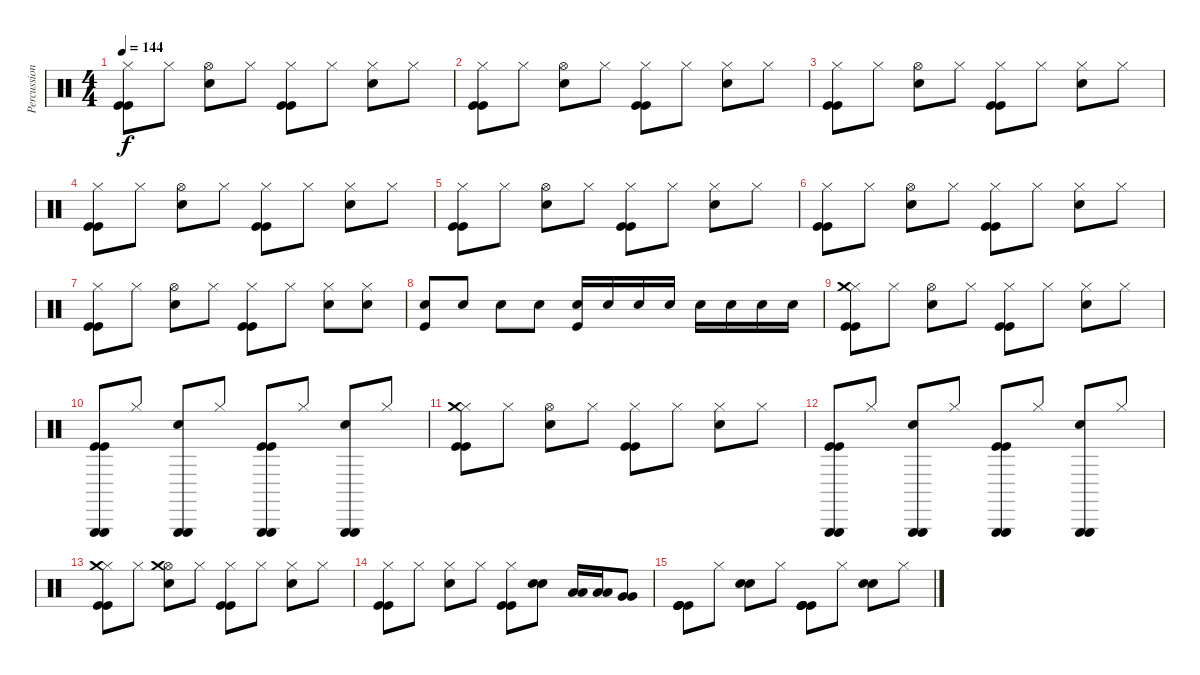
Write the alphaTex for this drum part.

\track ("Percussion" "Percussion") {instrument percussion}
\staff {score}
\articulation defaults
\ts (4 4)
\tempo 144
\clef neutral
\ks c
("Hi-Hat (closed)" "Kick (hit)" "Kick (hit)").8{dy f} "Hi-Hat (closed)".8 ("Hi-Hat (open)" "Snare (hit) 2").8 "Hi-Hat (closed)".8 ("Hi-Hat (closed)" "Kick (hit)" "Kick (hit)").8 "Hi-Hat (closed)".8 ("Hi-Hat (closed)" "Snare (hit) 2").8 "Hi-Hat (closed)".8 |
("Hi-Hat (closed)" "Kick (hit)" "Kick (hit)").8 "Hi-Hat (closed)".8 ("Hi-Hat (open)" "Snare (hit) 2").8 "Hi-Hat (closed)".8 ("Hi-Hat (closed)" "Kick (hit)" "Kick (hit)").8 "Hi-Hat (closed)".8 ("Hi-Hat (closed)" "Snare (hit) 2").8 "Hi-Hat (closed)".8 |
("Hi-Hat (closed)" "Kick (hit)" "Kick (hit)").8 "Hi-Hat (closed)".8 ("Hi-Hat (open)" "Snare (hit) 2").8 "Hi-Hat (closed)".8 ("Hi-Hat (closed)" "Kick (hit)" "Kick (hit)").8 "Hi-Hat (closed)".8 ("Hi-Hat (closed)" "Snare (hit) 2").8 "Hi-Hat (closed)".8 |
("Hi-Hat (closed)" "Kick (hit)" "Kick (hit)").8 "Hi-Hat (closed)".8 ("Hi-Hat (open)" "Snare (hit) 2").8 "Hi-Hat (closed)".8 ("Hi-Hat (closed)" "Kick (hit)" "Kick (hit)").8 "Hi-Hat (closed)".8 ("Hi-Hat (closed)" "Snare (hit) 2").8 "Hi-Hat (closed)".8 |
("Hi-Hat (closed)" "Kick (hit)" "Kick (hit)").8 "Hi-Hat (closed)".8 ("Hi-Hat (open)" "Snare (hit) 2").8 "Hi-Hat (closed)".8 ("Hi-Hat (closed)" "Kick (hit)" "Kick (hit)").8 "Hi-Hat (closed)".8 ("Hi-Hat (closed)" "Snare (hit) 2").8 "Hi-Hat (closed)".8 |
("Hi-Hat (closed)" "Kick (hit)" "Kick (hit)").8 "Hi-Hat (closed)".8 ("Hi-Hat (open)" "Snare (hit) 2").8 "Hi-Hat (closed)".8 ("Hi-Hat (closed)" "Kick (hit)" "Kick (hit)").8 "Hi-Hat (closed)".8 ("Hi-Hat (closed)" "Snare (hit) 2").8 "Hi-Hat (closed)".8 |
("Hi-Hat (closed)" "Kick (hit)" "Kick (hit)").8 "Hi-Hat (closed)".8 ("Hi-Hat (open)" "Snare (hit) 2").8 "Hi-Hat (closed)".8 ("Hi-Hat (closed)" "Kick (hit)" "Kick (hit)").8 "Hi-Hat (closed)".8 ("Hi-Hat (closed)" "Snare (hit) 2").8 ("Hi-Hat (closed)" "Snare (hit) 2").8 |
("Snare (hit) 2" "Kick (hit)").8 "Snare (hit) 2".8 "Snare (hit) 2".8 "Snare (hit) 2".8 ("Snare (hit) 2" "Kick (hit)").16 "Snare (hit) 2".16 "Snare (hit) 2".16 "Snare (hit) 2".16 "Snare (hit) 2".16 "Snare (hit) 2".16 "Snare (hit) 2".16 "Snare (hit) 2".16 |
("Hi-Hat (closed)" "Kick (hit)" "Kick (hit)" "Crash medium (hit)").8 "Hi-Hat (closed)".8 ("Hi-Hat (open)" "Snare (hit) 2").8 "Hi-Hat (closed)".8 ("Hi-Hat (closed)" "Kick (hit)" "Kick (hit)").8 "Hi-Hat (closed)".8 ("Hi-Hat (closed)" "Snare (hit) 2").8 "Hi-Hat (closed)".8 |
("Triangle (hit)" "Kick (hit)" "Kick (hit)" "Triangle (hit)").8 "Hi-Hat (closed)".8 ("Triangle (hit)" "Snare (hit) 2" "Triangle (hit)").8 "Hi-Hat (closed)".8 ("Triangle (hit)" "Kick (hit)" "Kick (hit)" "Triangle (hit)").8 "Hi-Hat (closed)".8 ("Triangle (hit)" "Snare (hit) 2" "Triangle (hit)").8 "Hi-Hat (closed)".8 |
("Hi-Hat (closed)" "Kick (hit)" "Kick (hit)" "Crash medium (hit)").8 "Hi-Hat (closed)".8 ("Hi-Hat (open)" "Snare (hit) 2").8 "Hi-Hat (closed)".8 ("Hi-Hat (closed)" "Kick (hit)" "Kick (hit)").8 "Hi-Hat (closed)".8 ("Hi-Hat (closed)" "Snare (hit) 2").8 "Hi-Hat (closed)".8 |
("Triangle (hit)" "Kick (hit)" "Kick (hit)" "Triangle (hit)").8 "Hi-Hat (closed)".8 ("Triangle (hit)" "Snare (hit) 2" "Triangle (hit)").8 "Hi-Hat (closed)".8 ("Triangle (hit)" "Kick (hit)" "Kick (hit)" "Triangle (hit)").8 "Hi-Hat (closed)".8 ("Triangle (hit)" "Snare (hit) 2" "Triangle (hit)").8 "Hi-Hat (closed)".8 |
("Hi-Hat (closed)" "Kick (hit)" "Kick (hit)" "Crash medium (hit)").8 "Hi-Hat (closed)".8 ("Hi-Hat (open)" "Snare (hit) 2" "Crash medium (hit)").8 "Hi-Hat (closed)".8 ("Hi-Hat (closed)" "Kick (hit)" "Kick (hit)").8 "Hi-Hat (closed)".8 ("Hi-Hat (closed)" "Snare (hit) 2").8 "Hi-Hat (closed)".8 |
("Hi-Hat (closed)" "Kick (hit)" "Kick (hit)").8 "Hi-Hat (closed)".8 ("Hi-Hat (closed)" "Snare (hit) 2").8 "Hi-Hat (closed)".8 ("Hi-Hat (closed)" "Kick (hit)" "Kick (hit)").8 ("Snare (hit) 2" "Snare (hit) 2").8 ("Low Floor Tom (hit)" "Low Floor Tom (hit)").16 ("Low Floor Tom (hit)" "Low Floor Tom (hit)").16 ("Very Low Tom (hit)" "Very Low Tom (hit)").8 |
("Kick (hit)" "Kick (hit)" "Kick (hit)" "Kick (hit)").8 "Hi-Hat (closed)".8 ("Snare (hit) 2" "Snare (hit) 2").8 "Hi-Hat (closed)".8 ("Kick (hit)" "Kick (hit)" "Kick (hit)" "Kick (hit)").8 "Hi-Hat (closed)".8 ("Snare (hit) 2" "Snare (hit) 2").8 "Hi-Hat (closed)".8
